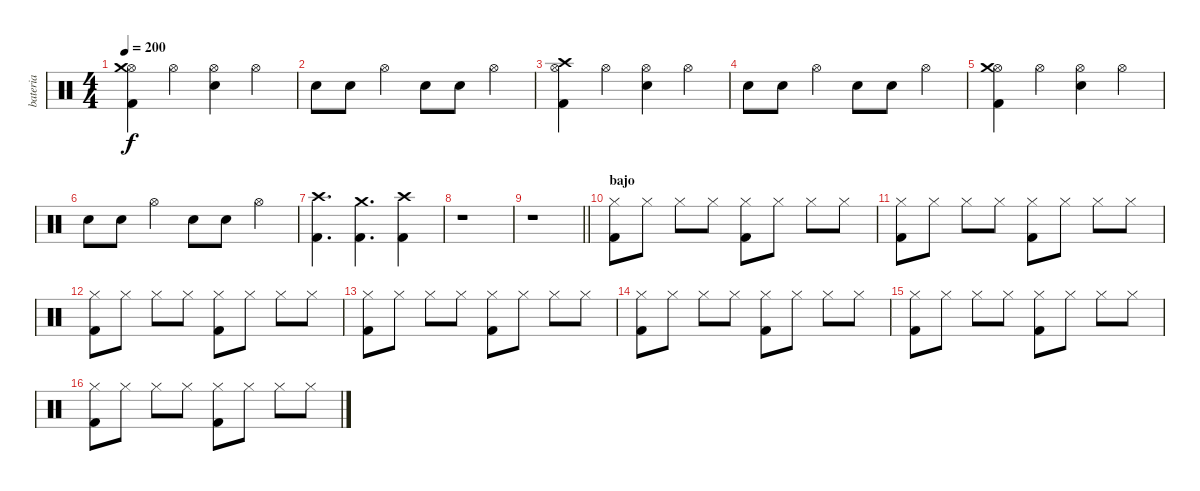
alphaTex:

\track ("bateria" "bateria") {instrument percussion}
\staff {score}
\articulation defaults
\ts (4 4)
\tempo 200
\clef neutral
\ks c
("Kick (hit) 2" "Hi-Hat (open)" "Crash medium (hit)").4{dy f} "Hi-Hat (open)".4 ("Electric Snare (hit)" "Hi-Hat (open)").4 "Hi-Hat (open)".4 |
"Electric Snare (hit)".8 "Electric Snare (hit)".8 "Hi-Hat (open)".4 "Electric Snare (hit)".8 "Electric Snare (hit)".8 "Hi-Hat (open)".4 |
("Kick (hit) 2" "Hi-Hat (open)" "Crash high (hit)").4 "Hi-Hat (open)".4 ("Electric Snare (hit)" "Hi-Hat (open)").4 "Hi-Hat (open)".4 |
"Electric Snare (hit)".8 "Electric Snare (hit)".8 "Hi-Hat (open)".4 "Electric Snare (hit)".8 "Electric Snare (hit)".8 "Hi-Hat (open)".4 |
("Kick (hit) 2" "Hi-Hat (open)" "Crash medium (hit)").4 "Hi-Hat (open)".4 ("Electric Snare (hit)" "Hi-Hat (open)").4 "Hi-Hat (open)".4 |
"Electric Snare (hit)".8 "Electric Snare (hit)".8 "Hi-Hat (open)".4 "Electric Snare (hit)".8 "Electric Snare (hit)".8 "Hi-Hat (open)".4 |
("Kick (hit) 2" "Crash high (hit)").4{d} ("Kick (hit) 2" "Crash medium (hit)").4{d} ("Kick (hit) 2" "Crash high (hit)").4 |
r.1 |
\barLineRight lightlight
r.1 |
\section ("" "bajo")
("Kick (hit) 2" "Hi-Hat (closed)").8 "Hi-Hat (closed)".8 "Hi-Hat (closed)".8 "Hi-Hat (closed)".8 ("Kick (hit) 2" "Hi-Hat (closed)").8 "Hi-Hat (closed)".8 "Hi-Hat (closed)".8 "Hi-Hat (closed)".8 |
("Kick (hit) 2" "Hi-Hat (closed)").8 "Hi-Hat (closed)".8 "Hi-Hat (closed)".8 "Hi-Hat (closed)".8 ("Kick (hit) 2" "Hi-Hat (closed)").8 "Hi-Hat (closed)".8 "Hi-Hat (closed)".8 "Hi-Hat (closed)".8 |
("Kick (hit) 2" "Hi-Hat (closed)").8 "Hi-Hat (closed)".8 "Hi-Hat (closed)".8 "Hi-Hat (closed)".8 ("Kick (hit) 2" "Hi-Hat (closed)").8 "Hi-Hat (closed)".8 "Hi-Hat (closed)".8 "Hi-Hat (closed)".8 |
("Kick (hit) 2" "Hi-Hat (closed)").8 "Hi-Hat (closed)".8 "Hi-Hat (closed)".8 "Hi-Hat (closed)".8 ("Kick (hit) 2" "Hi-Hat (closed)").8 "Hi-Hat (closed)".8 "Hi-Hat (closed)".8 "Hi-Hat (closed)".8 |
("Kick (hit) 2" "Hi-Hat (closed)").8 "Hi-Hat (closed)".8 "Hi-Hat (closed)".8 "Hi-Hat (closed)".8 ("Kick (hit) 2" "Hi-Hat (closed)").8 "Hi-Hat (closed)".8 "Hi-Hat (closed)".8 "Hi-Hat (closed)".8 |
("Kick (hit) 2" "Hi-Hat (closed)").8 "Hi-Hat (closed)".8 "Hi-Hat (closed)".8 "Hi-Hat (closed)".8 ("Kick (hit) 2" "Hi-Hat (closed)").8 "Hi-Hat (closed)".8 "Hi-Hat (closed)".8 "Hi-Hat (closed)".8 |
("Kick (hit) 2" "Hi-Hat (closed)").8 "Hi-Hat (closed)".8 "Hi-Hat (closed)".8 "Hi-Hat (closed)".8 ("Kick (hit) 2" "Hi-Hat (closed)").8 "Hi-Hat (closed)".8 "Hi-Hat (closed)".8 "Hi-Hat (closed)".8
